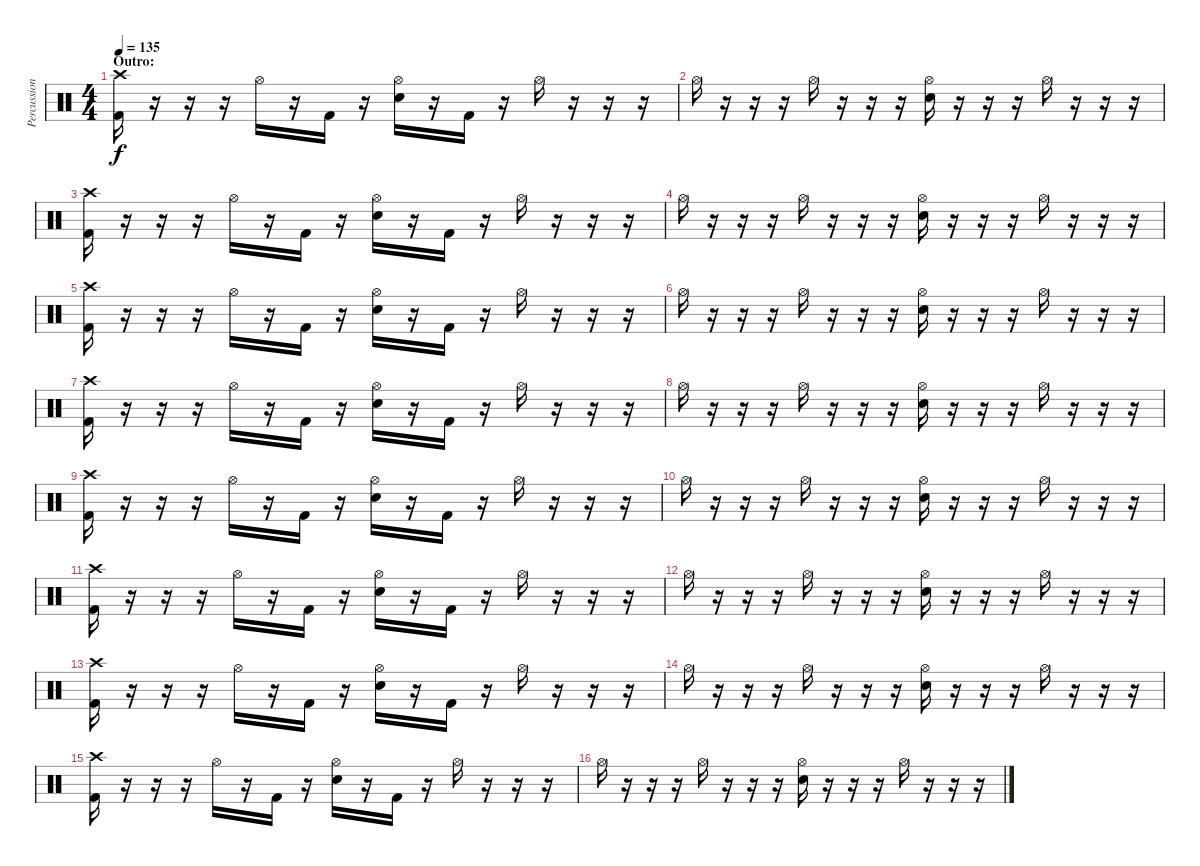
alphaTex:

\track ("Percussion" "Percussion") {instrument percussion}
\staff {score}
\articulation defaults
\ts (4 4)
\section ("" "Outro:")
\tempo 135
\clef neutral
\ks c
("Crash high (hit)" "Kick (hit) 2").16{dy f} r.16 r.16 r.16 "Hi-Hat (open)".16 r.16 "Kick (hit) 2".16 r.16 ("Hi-Hat (open)" "Electric Snare (hit)").16 r.16 "Kick (hit) 2".16 r.16 "Hi-Hat (open)".16 r.16 r.16 r.16 |
"Hi-Hat (open)".16 r.16 r.16 r.16 "Hi-Hat (open)".16 r.16 r.16 r.16 ("Hi-Hat (open)" "Electric Snare (hit)").16 r.16 r.16 r.16 "Hi-Hat (open)".16 r.16 r.16 r.16 |
("Crash high (hit)" "Kick (hit) 2").16 r.16 r.16 r.16 "Hi-Hat (open)".16 r.16 "Kick (hit) 2".16 r.16 ("Hi-Hat (open)" "Electric Snare (hit)").16 r.16 "Kick (hit) 2".16 r.16 "Hi-Hat (open)".16 r.16 r.16 r.16 |
"Hi-Hat (open)".16 r.16 r.16 r.16 "Hi-Hat (open)".16 r.16 r.16 r.16 ("Hi-Hat (open)" "Electric Snare (hit)").16 r.16 r.16 r.16 "Hi-Hat (open)".16 r.16 r.16 r.16 |
("Crash high (hit)" "Kick (hit) 2").16 r.16 r.16 r.16 "Hi-Hat (open)".16 r.16 "Kick (hit) 2".16 r.16 ("Hi-Hat (open)" "Electric Snare (hit)").16 r.16 "Kick (hit) 2".16 r.16 "Hi-Hat (open)".16 r.16 r.16 r.16 |
"Hi-Hat (open)".16 r.16 r.16 r.16 "Hi-Hat (open)".16 r.16 r.16 r.16 ("Hi-Hat (open)" "Electric Snare (hit)").16 r.16 r.16 r.16 "Hi-Hat (open)".16 r.16 r.16 r.16 |
("Crash high (hit)" "Kick (hit) 2").16 r.16 r.16 r.16 "Hi-Hat (open)".16 r.16 "Kick (hit) 2".16 r.16 ("Hi-Hat (open)" "Electric Snare (hit)").16 r.16 "Kick (hit) 2".16 r.16 "Hi-Hat (open)".16 r.16 r.16 r.16 |
"Hi-Hat (open)".16 r.16 r.16 r.16 "Hi-Hat (open)".16 r.16 r.16 r.16 ("Hi-Hat (open)" "Electric Snare (hit)").16 r.16 r.16 r.16 "Hi-Hat (open)".16 r.16 r.16 r.16 |
("Crash high (hit)" "Kick (hit) 2").16 r.16 r.16 r.16 "Hi-Hat (open)".16 r.16 "Kick (hit) 2".16 r.16 ("Hi-Hat (open)" "Electric Snare (hit)").16 r.16 "Kick (hit) 2".16 r.16 "Hi-Hat (open)".16 r.16 r.16 r.16 |
"Hi-Hat (open)".16 r.16 r.16 r.16 "Hi-Hat (open)".16 r.16 r.16 r.16 ("Hi-Hat (open)" "Electric Snare (hit)").16 r.16 r.16 r.16 "Hi-Hat (open)".16 r.16 r.16 r.16 |
("Crash high (hit)" "Kick (hit) 2").16 r.16 r.16 r.16 "Hi-Hat (open)".16 r.16 "Kick (hit) 2".16 r.16 ("Hi-Hat (open)" "Electric Snare (hit)").16 r.16 "Kick (hit) 2".16 r.16 "Hi-Hat (open)".16 r.16 r.16 r.16 |
"Hi-Hat (open)".16 r.16 r.16 r.16 "Hi-Hat (open)".16 r.16 r.16 r.16 ("Hi-Hat (open)" "Electric Snare (hit)").16 r.16 r.16 r.16 "Hi-Hat (open)".16 r.16 r.16 r.16 |
("Crash high (hit)" "Kick (hit) 2").16 r.16 r.16 r.16 "Hi-Hat (open)".16 r.16 "Kick (hit) 2".16 r.16 ("Hi-Hat (open)" "Electric Snare (hit)").16 r.16 "Kick (hit) 2".16 r.16 "Hi-Hat (open)".16 r.16 r.16 r.16 |
"Hi-Hat (open)".16 r.16 r.16 r.16 "Hi-Hat (open)".16 r.16 r.16 r.16 ("Hi-Hat (open)" "Electric Snare (hit)").16 r.16 r.16 r.16 "Hi-Hat (open)".16 r.16 r.16 r.16 |
("Crash high (hit)" "Kick (hit) 2").16 r.16 r.16 r.16 "Hi-Hat (open)".16 r.16 "Kick (hit) 2".16 r.16 ("Hi-Hat (open)" "Electric Snare (hit)").16 r.16 "Kick (hit) 2".16 r.16 "Hi-Hat (open)".16 r.16 r.16 r.16 |
"Hi-Hat (open)".16 r.16 r.16 r.16 "Hi-Hat (open)".16 r.16 r.16 r.16 ("Hi-Hat (open)" "Electric Snare (hit)").16 r.16 r.16 r.16 "Hi-Hat (open)".16 r.16 r.16 r.16
